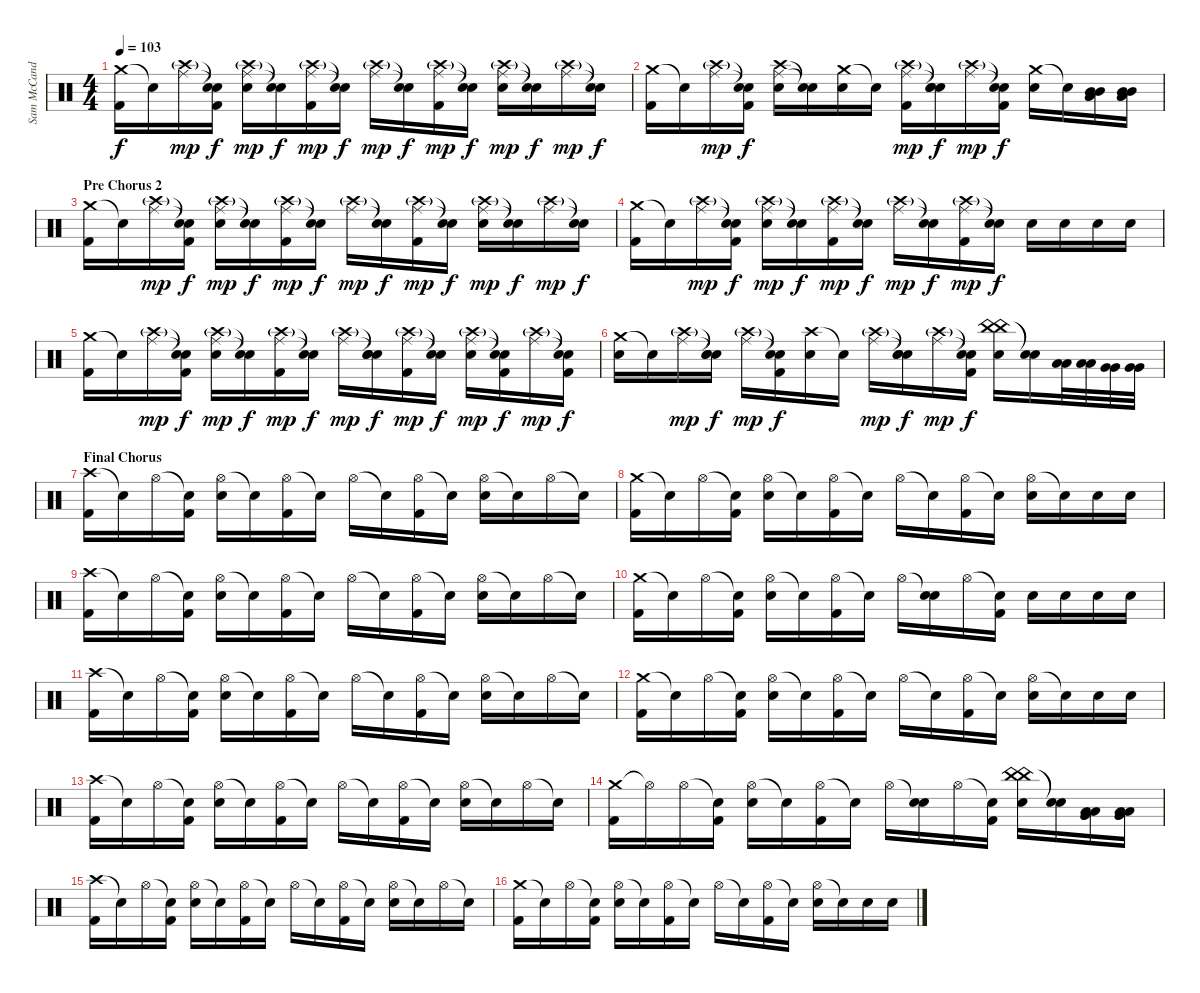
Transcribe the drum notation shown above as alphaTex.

\track ("Sam McCandless (Drums)" "Sam McCand") {instrument percussion}
\staff {score}
\articulation defaults
\ts (4 4)
\tempo 103
\clef neutral
\ks c
("Crash medium (hit)" "Kick (hit) 2").16{dy f} "Snare (hit)"{t}.16 ("Crash high (hit)"{g} "Ride (middle)").16{dy mp} ("Snare (hit)"{t} "Snare (hit)"{t} "Kick (hit) 2").16{dy f} ("Crash high (hit)"{g} "Ride (middle)" "Electric Snare (hit)").16{dy mp} ("Snare (hit)"{t} "Snare (hit)"{t}).16{dy f} ("Crash high (hit)"{g} "Ride (middle)" "Kick (hit) 2").16{dy mp} ("Snare (hit)"{t} "Snare (hit)"{t}).16{dy f} ("Crash high (hit)"{g} "Ride (middle)").16{dy mp} ("Snare (hit)"{t} "Snare (hit)"{t}).16{dy f} ("Crash high (hit)"{g} "Ride (middle)" "Kick (hit) 2").16{dy mp} ("Snare (hit)"{t} "Snare (hit)"{t}).16{dy f} ("Crash high (hit)"{g} "Ride (middle)" "Electric Snare (hit)").16{dy mp} ("Snare (hit)"{t} "Snare (hit)"{t}).16{dy f} ("Crash high (hit)"{g} "Ride (middle)").16{dy mp} ("Snare (hit)"{t} "Snare (hit)"{t}).16{dy f} |
("Crash medium (hit)" "Kick (hit) 2").16 "Snare (hit)"{t}.16 ("Crash high (hit)"{g} "Ride (middle)").16{dy mp} ("Snare (hit)"{t} "Snare (hit)"{t} "Kick (hit) 2").16{dy f} ("Crash high (hit)" "Ride (middle)" "Electric Snare (hit)").16 ("Snare (hit)"{t} "Snare (hit)"{t}).16 ("Crash medium (hit)" "Electric Snare (hit)").16 "Snare (hit)"{t}.16 ("Crash high (hit)"{g} "Ride (middle)" "Kick (hit) 2").16{dy mp} ("Snare (hit)"{t} "Snare (hit)"{t} "Electric Snare (hit)").16{dy f} ("Crash high (hit)"{g} "Ride (middle)").16{dy mp} ("Snare (hit)"{t} "Snare (hit)"{t} "Kick (hit) 2").16{dy f} ("Crash medium (hit)" "Electric Snare (hit)").16 "Snare (hit)"{t}.16 ("Mid Tom (hit)" "Mid Tom (hit)" "Low Tom (hit)" "Low Tom (hit)").16 ("Mid Tom (hit)" "Mid Tom (hit)" "Low Tom (hit)" "Low Tom (hit)").16 |
\section ("" "Pre Chorus 2")
("Crash medium (hit)" "Kick (hit) 2").16 "Snare (hit)"{t}.16 ("Crash high (hit)"{g} "Ride (middle)").16{dy mp} ("Snare (hit)"{t} "Snare (hit)"{t} "Kick (hit) 2").16{dy f} ("Crash high (hit)"{g} "Ride (middle)" "Electric Snare (hit)").16{dy mp} ("Snare (hit)"{t} "Snare (hit)"{t}).16{dy f} ("Crash high (hit)"{g} "Ride (middle)" "Kick (hit) 2").16{dy mp} ("Snare (hit)"{t} "Snare (hit)"{t}).16{dy f} ("Crash high (hit)"{g} "Ride (middle)").16{dy mp} ("Snare (hit)"{t} "Snare (hit)"{t}).16{dy f} ("Crash high (hit)"{g} "Ride (middle)" "Kick (hit) 2").16{dy mp} ("Snare (hit)"{t} "Snare (hit)"{t}).16{dy f} ("Crash high (hit)"{g} "Ride (middle)" "Electric Snare (hit)").16{dy mp} ("Snare (hit)"{t} "Snare (hit)"{t}).16{dy f} ("Crash high (hit)"{g} "Ride (middle)").16{dy mp} ("Snare (hit)"{t} "Snare (hit)"{t}).16{dy f} |
("Crash medium (hit)" "Kick (hit) 2").16 "Snare (hit)"{t}.16 ("Crash high (hit)"{g} "Ride (middle)").16{dy mp} ("Snare (hit)"{t} "Snare (hit)"{t} "Kick (hit) 2").16{dy f} ("Crash high (hit)"{g} "Ride (middle)" "Electric Snare (hit)").16{dy mp} ("Snare (hit)"{t} "Snare (hit)"{t}).16{dy f} ("Crash high (hit)"{g} "Ride (middle)" "Kick (hit) 2").16{dy mp} ("Snare (hit)"{t} "Snare (hit)"{t}).16{dy f} ("Crash high (hit)"{g} "Ride (middle)").16{dy mp} ("Snare (hit)"{t} "Snare (hit)"{t}).16{dy f} ("Crash high (hit)"{g} "Ride (middle)" "Kick (hit) 2").16{dy mp} ("Snare (hit)"{t} "Snare (hit)"{t}).16{dy f} "Electric Snare (hit)".16 "Electric Snare (hit)".16 "Electric Snare (hit)".16 "Electric Snare (hit)".16 |
("Crash medium (hit)" "Kick (hit) 2").16 "Snare (hit)"{t}.16 ("Crash high (hit)"{g} "Ride (middle)").16{dy mp} ("Snare (hit)"{t} "Snare (hit)"{t} "Kick (hit) 2").16{dy f} ("Crash high (hit)"{g} "Ride (middle)" "Electric Snare (hit)").16{dy mp} ("Snare (hit)"{t} "Snare (hit)"{t}).16{dy f} ("Crash high (hit)"{g} "Ride (middle)" "Kick (hit) 2").16{dy mp} ("Snare (hit)"{t} "Snare (hit)"{t}).16{dy f} ("Crash high (hit)"{g} "Ride (middle)").16{dy mp} ("Snare (hit)"{t} "Snare (hit)"{t} "Electric Snare (hit)").16{dy f} ("Crash high (hit)"{g} "Ride (middle)" "Kick (hit) 2").16{dy mp} ("Snare (hit)"{t} "Snare (hit)"{t}).16{dy f} ("Crash high (hit)"{g} "Ride (middle)" "Electric Snare (hit)").16{dy mp} ("Snare (hit)"{t} "Snare (hit)"{t} "Kick (hit) 2").16{dy f} ("Crash high (hit)"{g} "Ride (middle)").16{dy mp} ("Snare (hit)"{t} "Snare (hit)"{t} "Kick (hit) 2").16{dy f} |
("Crash medium (hit)" "Electric Snare (hit)").16 "Snare (hit)"{t}.16 ("Crash high (hit)"{g} "Ride (middle)").16{dy mp} ("Snare (hit)"{t} "Snare (hit)"{t} "Electric Snare (hit)").16{dy f} ("Crash high (hit)"{g} "Ride (middle)").16{dy mp} ("Snare (hit)"{t} "Snare (hit)"{t} "Kick (hit) 2").16{dy f} ("Crash high (hit)" "Electric Snare (hit)").16 "Snare (hit)"{t}.16 ("Crash high (hit)"{g} "Ride (middle)").16{dy mp} ("Snare (hit)"{t} "Snare (hit)"{t} "Electric Snare (hit)").16{dy f} ("Crash high (hit)"{g} "Ride (middle)").16{dy mp} ("Snare (hit)"{t} "Snare (hit)"{t} "Kick (hit) 2").16{dy f} ("China (hit)" "China (hit)" "Electric Snare (hit)").16 ("Snare (hit)"{t} "Snare (hit)"{t}).16 ("Low Tom (hit)" "Low Tom (hit)").32 ("Low Tom (hit)" "Low Tom (hit)").32 ("Very Low Tom (hit)" "Very Low Tom (hit)").32 ("Very Low Tom (hit)" "Very Low Tom (hit)").32 |
\section ("" "Final Chorus")
("Crash high (hit)" "Kick (hit) 2").16 "Snare (hit)"{t}.16 "Hi-Hat (open)".16 ("Snare (hit)"{t} "Kick (hit) 2").16 ("Hi-Hat (open)" "Electric Snare (hit)").16 "Snare (hit)"{t}.16 ("Hi-Hat (open)" "Kick (hit) 2").16 "Snare (hit)"{t}.16 "Hi-Hat (open)".16 "Snare (hit)"{t}.16 ("Hi-Hat (open)" "Kick (hit) 2").16 "Snare (hit)"{t}.16 ("Hi-Hat (open)" "Electric Snare (hit)").16 "Snare (hit)"{t}.16 "Hi-Hat (open)".16 "Snare (hit)"{t}.16 |
("Crash medium (hit)" "Kick (hit) 2").16 "Snare (hit)"{t}.16 "Hi-Hat (open)".16 ("Snare (hit)"{t} "Kick (hit) 2").16 ("Hi-Hat (open)" "Electric Snare (hit)").16 "Snare (hit)"{t}.16 ("Hi-Hat (open)" "Kick (hit) 2").16 "Snare (hit)"{t}.16 "Hi-Hat (open)".16 "Snare (hit)"{t}.16 ("Hi-Hat (open)" "Kick (hit) 2").16 "Snare (hit)"{t}.16 ("Hi-Hat (open)" "Electric Snare (hit)").16 "Snare (hit)"{t}.16 "Electric Snare (hit)".16 "Electric Snare (hit)".16 |
("Crash high (hit)" "Kick (hit) 2").16 "Snare (hit)"{t}.16 "Hi-Hat (open)".16 ("Snare (hit)"{t} "Kick (hit) 2").16 ("Hi-Hat (open)" "Electric Snare (hit)").16 "Snare (hit)"{t}.16 ("Hi-Hat (open)" "Kick (hit) 2").16 "Snare (hit)"{t}.16 "Hi-Hat (open)".16 "Snare (hit)"{t}.16 ("Hi-Hat (open)" "Kick (hit) 2").16 "Snare (hit)"{t}.16 ("Hi-Hat (open)" "Electric Snare (hit)").16 "Snare (hit)"{t}.16 "Hi-Hat (open)".16 "Snare (hit)"{t}.16 |
("Crash medium (hit)" "Kick (hit) 2").16 "Snare (hit)"{t}.16 "Hi-Hat (open)".16 ("Snare (hit)"{t} "Kick (hit) 2").16 ("Hi-Hat (open)" "Electric Snare (hit)").16 "Snare (hit)"{t}.16 ("Hi-Hat (open)" "Kick (hit) 2").16 "Snare (hit)"{t}.16 "Hi-Hat (open)".16 ("Snare (hit)"{t} "Electric Snare (hit)").16 "Hi-Hat (open)".16 ("Snare (hit)"{t} "Kick (hit) 2").16 "Electric Snare (hit)".16 "Electric Snare (hit)".16 "Electric Snare (hit)".16 "Electric Snare (hit)".16 |
("Crash high (hit)" "Kick (hit) 2").16 "Snare (hit)"{t}.16 "Hi-Hat (open)".16 ("Snare (hit)"{t} "Kick (hit) 2").16 ("Hi-Hat (open)" "Electric Snare (hit)").16 "Snare (hit)"{t}.16 ("Hi-Hat (open)" "Kick (hit) 2").16 "Snare (hit)"{t}.16 "Hi-Hat (open)".16 "Snare (hit)"{t}.16 ("Hi-Hat (open)" "Kick (hit) 2").16 "Snare (hit)"{t}.16 ("Hi-Hat (open)" "Electric Snare (hit)").16 "Snare (hit)"{t}.16 "Hi-Hat (open)".16 "Snare (hit)"{t}.16 |
("Crash medium (hit)" "Kick (hit) 2").16 "Snare (hit)"{t}.16 "Hi-Hat (open)".16 ("Snare (hit)"{t} "Kick (hit) 2").16 ("Hi-Hat (open)" "Electric Snare (hit)").16 "Snare (hit)"{t}.16 ("Hi-Hat (open)" "Kick (hit) 2").16 "Snare (hit)"{t}.16 "Hi-Hat (open)".16 "Snare (hit)"{t}.16 ("Hi-Hat (open)" "Kick (hit) 2").16 "Snare (hit)"{t}.16 ("Hi-Hat (open)" "Electric Snare (hit)").16 "Snare (hit)"{t}.16 "Electric Snare (hit)".16 "Electric Snare (hit)".16 |
("Crash high (hit)" "Kick (hit) 2").16 "Snare (hit)"{t}.16 "Hi-Hat (open)".16 ("Snare (hit)"{t} "Kick (hit) 2").16 ("Hi-Hat (open)" "Electric Snare (hit)").16 "Snare (hit)"{t}.16 ("Hi-Hat (open)" "Kick (hit) 2").16 "Snare (hit)"{t}.16 "Hi-Hat (open)".16 "Snare (hit)"{t}.16 ("Hi-Hat (open)" "Kick (hit) 2").16 "Snare (hit)"{t}.16 ("Hi-Hat (open)" "Electric Snare (hit)").16 "Snare (hit)"{t}.16 "Hi-Hat (open)".16 "Snare (hit)"{t}.16 |
("Crash medium (hit)" "Kick (hit) 2").16 "Hi-Hat (open)"{t}.16 "Hi-Hat (open)".16 ("Snare (hit)"{t} "Kick (hit) 2").16 ("Hi-Hat (open)" "Electric Snare (hit)").16 "Snare (hit)"{t}.16 ("Hi-Hat (open)" "Kick (hit) 2").16 "Snare (hit)"{t}.16 "Hi-Hat (open)".16 ("Snare (hit)"{t} "Electric Snare (hit)").16 "Hi-Hat (open)".16 ("Snare (hit)"{t} "Kick (hit) 2").16 ("China (hit)" "China (hit)" "Electric Snare (hit)").16 ("Snare (hit)"{t} "Snare (hit)"{t}).16 ("Low Tom (hit)" "Low Tom (hit)" "Very Low Tom (hit)" "Very Low Tom (hit)").16 ("Low Tom (hit)" "Low Tom (hit)" "Very Low Tom (hit)" "Very Low Tom (hit)").16 |
("Crash high (hit)" "Kick (hit) 2").16 "Snare (hit)"{t}.16 "Hi-Hat (open)".16 ("Snare (hit)"{t} "Kick (hit) 2").16 ("Hi-Hat (open)" "Electric Snare (hit)").16 "Snare (hit)"{t}.16 ("Hi-Hat (open)" "Kick (hit) 2").16 "Snare (hit)"{t}.16 "Hi-Hat (open)".16 "Snare (hit)"{t}.16 ("Hi-Hat (open)" "Kick (hit) 2").16 "Snare (hit)"{t}.16 ("Hi-Hat (open)" "Electric Snare (hit)").16 "Snare (hit)"{t}.16 "Hi-Hat (open)".16 "Snare (hit)"{t}.16 |
("Crash medium (hit)" "Kick (hit) 2").16 "Snare (hit)"{t}.16 "Hi-Hat (open)".16 ("Snare (hit)"{t} "Kick (hit) 2").16 ("Hi-Hat (open)" "Electric Snare (hit)").16 "Snare (hit)"{t}.16 ("Hi-Hat (open)" "Kick (hit) 2").16 "Snare (hit)"{t}.16 "Hi-Hat (open)".16 "Snare (hit)"{t}.16 ("Hi-Hat (open)" "Kick (hit) 2").16 "Snare (hit)"{t}.16 ("Hi-Hat (open)" "Electric Snare (hit)").16 "Snare (hit)"{t}.16 "Electric Snare (hit)".16 "Electric Snare (hit)".16
